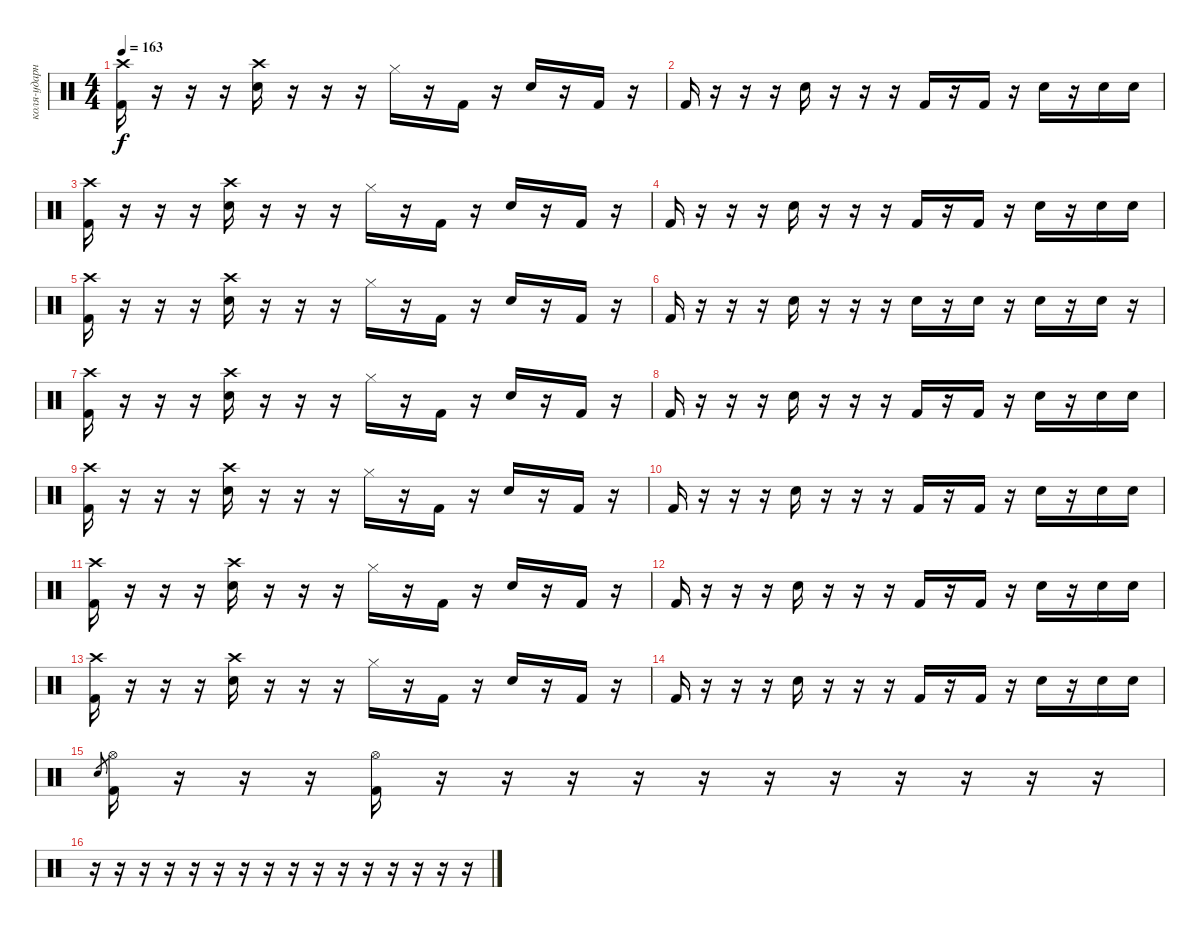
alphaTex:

\track ("коля-ударные" "коля-ударн") {instrument percussion}
\staff {score}
\articulation defaults
\ts (4 4)
\tempo 163
\clef neutral
\ks c
("Kick (hit) 2" "Crash high (hit)").16{dy f} r.16 r.16 r.16 ("Electric Snare (hit)" "Crash high (hit)").16 r.16 r.16 r.16 "Hi-Hat (closed)".16 r.16 "Kick (hit) 2".16 r.16 "Electric Snare (hit)".16 r.16 "Kick (hit) 2".16 r.16 |
"Kick (hit) 2".16 r.16 r.16 r.16 "Electric Snare (hit)".16 r.16 r.16 r.16 "Kick (hit) 2".16 r.16 "Kick (hit) 2".16 r.16 "Electric Snare (hit)".16 r.16 "Electric Snare (hit)".16 "Electric Snare (hit)".16 |
("Kick (hit) 2" "Crash high (hit)").16 r.16 r.16 r.16 ("Electric Snare (hit)" "Crash high (hit)").16 r.16 r.16 r.16 "Hi-Hat (closed)".16 r.16 "Kick (hit) 2".16 r.16 "Electric Snare (hit)".16 r.16 "Kick (hit) 2".16 r.16 |
"Kick (hit) 2".16 r.16 r.16 r.16 "Electric Snare (hit)".16 r.16 r.16 r.16 "Kick (hit) 2".16 r.16 "Kick (hit) 2".16 r.16 "Electric Snare (hit)".16 r.16 "Electric Snare (hit)".16 "Electric Snare (hit)".16 |
("Kick (hit) 2" "Crash high (hit)").16 r.16 r.16 r.16 ("Electric Snare (hit)" "Crash high (hit)").16 r.16 r.16 r.16 "Hi-Hat (closed)".16 r.16 "Kick (hit) 2".16 r.16 "Electric Snare (hit)".16 r.16 "Kick (hit) 2".16 r.16 |
"Kick (hit) 2".16 r.16 r.16 r.16 "Electric Snare (hit)".16 r.16 r.16 r.16 "Electric Snare (hit)".16 r.16 "Electric Snare (hit)".16 r.16 "Electric Snare (hit)".16 r.16 "Electric Snare (hit)".16 r.16 |
("Kick (hit) 2" "Crash high (hit)").16 r.16 r.16 r.16 ("Electric Snare (hit)" "Crash high (hit)").16 r.16 r.16 r.16 "Hi-Hat (closed)".16 r.16 "Kick (hit) 2".16 r.16 "Electric Snare (hit)".16 r.16 "Kick (hit) 2".16 r.16 |
"Kick (hit) 2".16 r.16 r.16 r.16 "Electric Snare (hit)".16 r.16 r.16 r.16 "Kick (hit) 2".16 r.16 "Kick (hit) 2".16 r.16 "Electric Snare (hit)".16 r.16 "Electric Snare (hit)".16 "Electric Snare (hit)".16 |
("Kick (hit) 2" "Crash high (hit)").16 r.16 r.16 r.16 ("Electric Snare (hit)" "Crash high (hit)").16 r.16 r.16 r.16 "Hi-Hat (closed)".16 r.16 "Kick (hit) 2".16 r.16 "Electric Snare (hit)".16 r.16 "Kick (hit) 2".16 r.16 |
"Kick (hit) 2".16 r.16 r.16 r.16 "Electric Snare (hit)".16 r.16 r.16 r.16 "Kick (hit) 2".16 r.16 "Kick (hit) 2".16 r.16 "Electric Snare (hit)".16 r.16 "Electric Snare (hit)".16 "Electric Snare (hit)".16 |
("Kick (hit) 2" "Crash high (hit)").16 r.16 r.16 r.16 ("Electric Snare (hit)" "Crash high (hit)").16 r.16 r.16 r.16 "Hi-Hat (closed)".16 r.16 "Kick (hit) 2".16 r.16 "Electric Snare (hit)".16 r.16 "Kick (hit) 2".16 r.16 |
"Kick (hit) 2".16 r.16 r.16 r.16 "Electric Snare (hit)".16 r.16 r.16 r.16 "Kick (hit) 2".16 r.16 "Kick (hit) 2".16 r.16 "Electric Snare (hit)".16 r.16 "Electric Snare (hit)".16 "Electric Snare (hit)".16 |
("Kick (hit) 2" "Crash high (hit)").16 r.16 r.16 r.16 ("Electric Snare (hit)" "Crash high (hit)").16 r.16 r.16 r.16 "Hi-Hat (closed)".16 r.16 "Kick (hit) 2".16 r.16 "Electric Snare (hit)".16 r.16 "Kick (hit) 2".16 r.16 |
"Kick (hit) 2".16 r.16 r.16 r.16 "Electric Snare (hit)".16 r.16 r.16 r.16 "Kick (hit) 2".16 r.16 "Kick (hit) 2".16 r.16 "Electric Snare (hit)".16 r.16 "Electric Snare (hit)".16 "Electric Snare (hit)".16 |
"Electric Snare (hit)".8{gr} ("Kick (hit) 2" "Hi-Hat (open)").16 r.16 r.16 r.16 ("Kick (hit) 2" "Hi-Hat (open)").16 r.16 r.16 r.16 r.16 r.16 r.16 r.16 r.16 r.16 r.16 r.16 |
r.16 r.16 r.16 r.16 r.16 r.16 r.16 r.16 r.16 r.16 r.16 r.16 r.16 r.16 r.16 r.16
